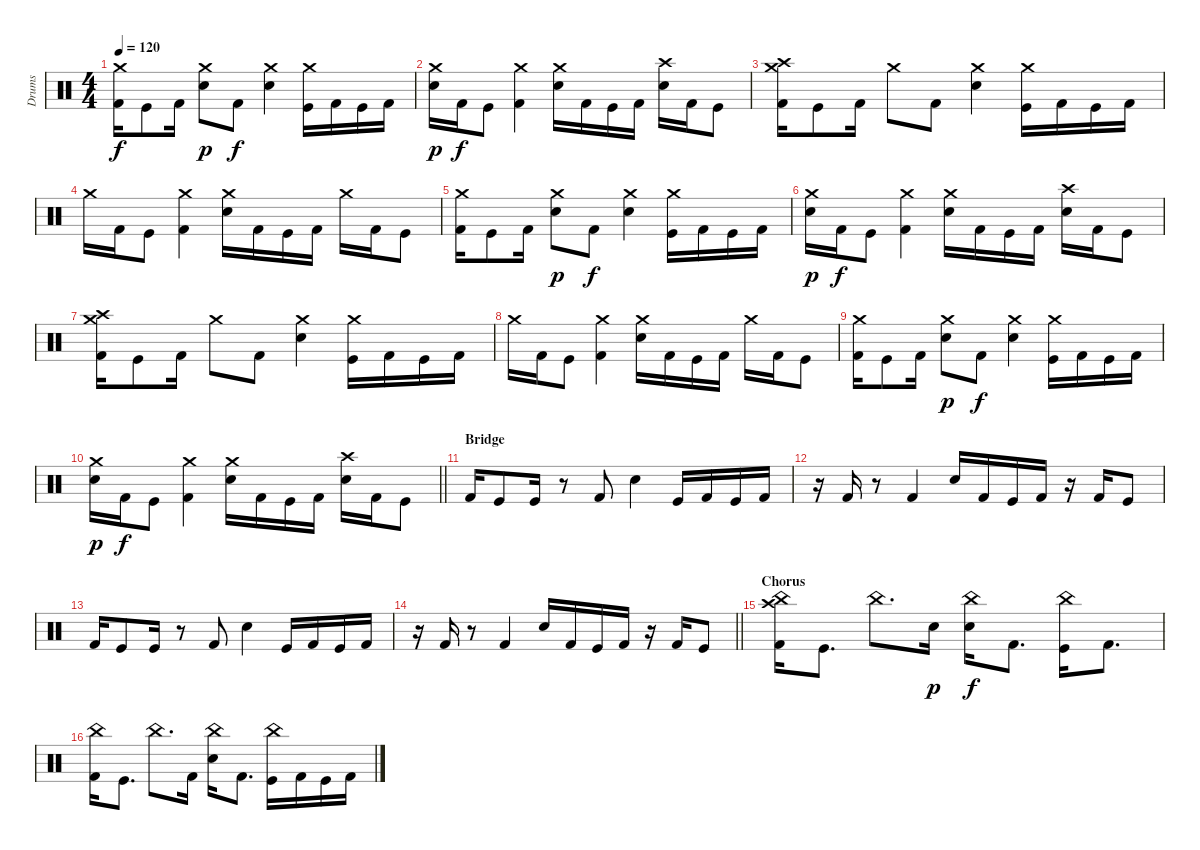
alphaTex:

\track ("Drums" "Drums") {instrument percussion}
\staff {score}
\articulation defaults
\ts (4 4)
\tempo 120
\clef neutral
\ks c
("Crash medium (hit)" "Kick (hit) 2").16{dy f} "Kick (hit)".8 "Kick (hit) 2".16 ("Crash medium (hit)" "Electric Snare (hit)").8{dy p} "Kick (hit) 2".8{dy f} ("Crash medium (hit)" "Electric Snare (hit)").4 ("Crash medium (hit)" "Kick (hit)").16 "Kick (hit) 2".16 "Kick (hit)".16 "Kick (hit) 2".16 |
("Crash medium (hit)" "Electric Snare (hit)").16{dy p} "Kick (hit) 2".16{dy f} "Kick (hit)".8 ("Crash medium (hit)" "Kick (hit) 2").4 ("Crash medium (hit)" "Electric Snare (hit)").16 "Kick (hit) 2".16 "Kick (hit)".16 "Kick (hit) 2".16 ("Crash high (hit)" "Electric Snare (hit)").16 "Kick (hit) 2".16 "Kick (hit)".8 |
("Crash medium (hit)" "Crash high (hit)" "Kick (hit) 2").16 "Kick (hit)".8 "Kick (hit) 2".16 "Crash medium (hit)".8 "Kick (hit) 2".8 ("Crash medium (hit)" "Electric Snare (hit)").4 ("Crash medium (hit)" "Kick (hit)").16 "Kick (hit) 2".16 "Kick (hit)".16 "Kick (hit) 2".16 |
"Crash medium (hit)".16 "Kick (hit) 2".16 "Kick (hit)".8 ("Crash medium (hit)" "Kick (hit) 2").4 ("Crash medium (hit)" "Electric Snare (hit)").16 "Kick (hit) 2".16 "Kick (hit)".16 "Kick (hit) 2".16 "Crash medium (hit)".16 "Kick (hit) 2".16 "Kick (hit)".8 |
("Crash medium (hit)" "Kick (hit) 2").16 "Kick (hit)".8 "Kick (hit) 2".16 ("Crash medium (hit)" "Electric Snare (hit)").8{dy p} "Kick (hit) 2".8{dy f} ("Crash medium (hit)" "Electric Snare (hit)").4 ("Crash medium (hit)" "Kick (hit)").16 "Kick (hit) 2".16 "Kick (hit)".16 "Kick (hit) 2".16 |
("Crash medium (hit)" "Electric Snare (hit)").16{dy p} "Kick (hit) 2".16{dy f} "Kick (hit)".8 ("Crash medium (hit)" "Kick (hit) 2").4 ("Crash medium (hit)" "Electric Snare (hit)").16 "Kick (hit) 2".16 "Kick (hit)".16 "Kick (hit) 2".16 ("Crash high (hit)" "Electric Snare (hit)").16 "Kick (hit) 2".16 "Kick (hit)".8 |
("Crash medium (hit)" "Crash high (hit)" "Kick (hit) 2").16 "Kick (hit)".8 "Kick (hit) 2".16 "Crash medium (hit)".8 "Kick (hit) 2".8 ("Crash medium (hit)" "Electric Snare (hit)").4 ("Crash medium (hit)" "Kick (hit)").16 "Kick (hit) 2".16 "Kick (hit)".16 "Kick (hit) 2".16 |
"Crash medium (hit)".16 "Kick (hit) 2".16 "Kick (hit)".8 ("Crash medium (hit)" "Kick (hit) 2").4 ("Crash medium (hit)" "Electric Snare (hit)").16 "Kick (hit) 2".16 "Kick (hit)".16 "Kick (hit) 2".16 "Crash medium (hit)".16 "Kick (hit) 2".16 "Kick (hit)".8 |
("Crash medium (hit)" "Kick (hit) 2").16 "Kick (hit)".8 "Kick (hit) 2".16 ("Crash medium (hit)" "Electric Snare (hit)").8{dy p} "Kick (hit) 2".8{dy f} ("Crash medium (hit)" "Electric Snare (hit)").4 ("Crash medium (hit)" "Kick (hit)").16 "Kick (hit) 2".16 "Kick (hit)".16 "Kick (hit) 2".16 |
\barLineRight lightlight
("Crash medium (hit)" "Electric Snare (hit)").16{dy p} "Kick (hit) 2".16{dy f} "Kick (hit)".8 ("Crash medium (hit)" "Kick (hit) 2").4 ("Crash medium (hit)" "Electric Snare (hit)").16 "Kick (hit) 2".16 "Kick (hit)".16 "Kick (hit) 2".16 ("Crash high (hit)" "Electric Snare (hit)").16 "Kick (hit) 2".16 "Kick (hit)".8 |
\section ("" "Bridge")
"Kick (hit) 2".16 "Kick (hit)".8 "Kick (hit)".16 r.8 "Kick (hit) 2".8 "Electric Snare (hit)".4 "Kick (hit)".16 "Kick (hit) 2".16 "Kick (hit)".16 "Kick (hit) 2".16 |
r.16 "Kick (hit) 2".16 r.8 "Kick (hit) 2".4 "Electric Snare (hit)".16 "Kick (hit) 2".16 "Kick (hit)".16 "Kick (hit) 2".16 r.16 "Kick (hit) 2".16 "Kick (hit)".8 |
"Kick (hit) 2".16 "Kick (hit)".8 "Kick (hit)".16 r.8 "Kick (hit) 2".8 "Electric Snare (hit)".4 "Kick (hit)".16 "Kick (hit) 2".16 "Kick (hit)".16 "Kick (hit) 2".16 |
\barLineRight lightlight
r.16 "Kick (hit) 2".16 r.8 "Kick (hit) 2".4 "Electric Snare (hit)".16 "Kick (hit) 2".16 "Kick (hit)".16 "Kick (hit) 2".16 r.16 "Kick (hit) 2".16 "Kick (hit)".8 |
\section ("" "Chorus")
("China (hit)" "Crash high (hit)" "Kick (hit) 2").16 "Kick (hit)".8{d} "China (hit)".8{d} "Electric Snare (hit)".16{dy p} ("China (hit)" "Electric Snare (hit)").16{dy f} "Kick (hit) 2".8{d} ("China (hit)" "Kick (hit)").16 "Kick (hit) 2".8{d} |
("China (hit)" "Kick (hit) 2").16 "Kick (hit)".8{d} "China (hit)".8{d} "Kick (hit) 2".16 ("China (hit)" "Electric Snare (hit)").16 "Kick (hit) 2".8{d} ("China (hit)" "Kick (hit)").16 "Kick (hit) 2".16 "Kick (hit)".16 "Kick (hit) 2".16
